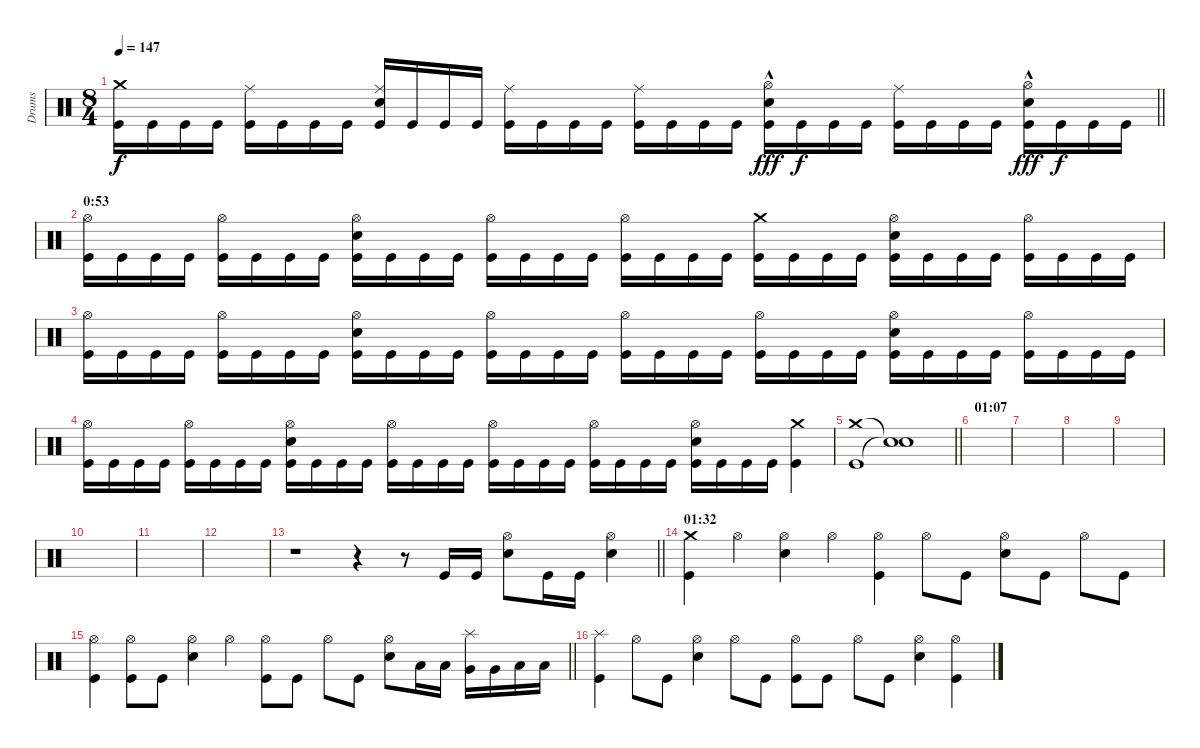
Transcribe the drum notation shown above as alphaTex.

\track ("Drums" "Drums") {instrument percussion}
\staff {score}
\articulation defaults
\ts (8 4)
\tempo 147
\clef neutral
\barLineRight lightlight
\ks c
("Crash medium (hit)" "Kick (hit)").16{dy f} "Kick (hit)".16 "Kick (hit)".16 "Kick (hit)".16 ("Ride (middle)" "Kick (hit)").16 "Kick (hit)".16 "Kick (hit)".16 "Kick (hit)".16 ("Ride (middle)" "Electric Snare (hit)" "Kick (hit)").16 "Kick (hit)".16 "Kick (hit)".16 "Kick (hit)".16 ("Ride (middle)" "Kick (hit)").16 "Kick (hit)".16 "Kick (hit)".16 "Kick (hit)".16 ("Ride (middle)" "Kick (hit)").16 "Kick (hit)".16 "Kick (hit)".16 "Kick (hit)".16 ("Hi-Hat (open)"{hac} "Electric Snare (hit)" "Kick (hit)").16{dy fff} "Kick (hit)".16{dy f} "Kick (hit)".16 "Kick (hit)".16 ("Ride (middle)" "Kick (hit)").16 "Kick (hit)".16 "Kick (hit)".16 "Kick (hit)".16 ("Hi-Hat (open)"{hac} "Electric Snare (hit)" "Kick (hit)").16{dy fff} "Kick (hit)".16{dy f} "Kick (hit)".16 "Kick (hit)".16 |
\section ("" "0:53")
("Hi-Hat (open)" "Kick (hit)").16 "Kick (hit)".16 "Kick (hit)".16 "Kick (hit)".16 ("Hi-Hat (open)" "Kick (hit)").16 "Kick (hit)".16 "Kick (hit)".16 "Kick (hit)".16 ("Hi-Hat (open)" "Electric Snare (hit)" "Kick (hit)").16 "Kick (hit)".16 "Kick (hit)".16 "Kick (hit)".16 ("Hi-Hat (open)" "Kick (hit)").16 "Kick (hit)".16 "Kick (hit)".16 "Kick (hit)".16 ("Hi-Hat (open)" "Kick (hit)").16 "Kick (hit)".16 "Kick (hit)".16 "Kick (hit)".16 ("Crash medium (hit)" "Kick (hit)").16 "Kick (hit)".16 "Kick (hit)".16 "Kick (hit)".16 ("Hi-Hat (open)" "Electric Snare (hit)" "Kick (hit)").16 "Kick (hit)".16 "Kick (hit)".16 "Kick (hit)".16 ("Hi-Hat (open)" "Kick (hit)").16 "Kick (hit)".16 "Kick (hit)".16 "Kick (hit)".16 |
("Hi-Hat (open)" "Kick (hit)").16 "Kick (hit)".16 "Kick (hit)".16 "Kick (hit)".16 ("Hi-Hat (open)" "Kick (hit)").16 "Kick (hit)".16 "Kick (hit)".16 "Kick (hit)".16 ("Hi-Hat (open)" "Electric Snare (hit)" "Kick (hit)").16 "Kick (hit)".16 "Kick (hit)".16 "Kick (hit)".16 ("Hi-Hat (open)" "Kick (hit)").16 "Kick (hit)".16 "Kick (hit)".16 "Kick (hit)".16 ("Hi-Hat (open)" "Kick (hit)").16 "Kick (hit)".16 "Kick (hit)".16 "Kick (hit)".16 ("Hi-Hat (open)" "Kick (hit)").16 "Kick (hit)".16 "Kick (hit)".16 "Kick (hit)".16 ("Hi-Hat (open)" "Electric Snare (hit)" "Kick (hit)").16 "Kick (hit)".16 "Kick (hit)".16 "Kick (hit)".16 ("Hi-Hat (open)" "Kick (hit)").16 "Kick (hit)".16 "Kick (hit)".16 "Kick (hit)".16 |
("Hi-Hat (open)" "Kick (hit)").16 "Kick (hit)".16 "Kick (hit)".16 "Kick (hit)".16 ("Hi-Hat (open)" "Kick (hit)").16 "Kick (hit)".16 "Kick (hit)".16 "Kick (hit)".16 ("Hi-Hat (open)" "Electric Snare (hit)" "Kick (hit)").16 "Kick (hit)".16 "Kick (hit)".16 "Kick (hit)".16 ("Hi-Hat (open)" "Kick (hit)").16 "Kick (hit)".16 "Kick (hit)".16 "Kick (hit)".16 ("Hi-Hat (open)" "Kick (hit)").16 "Kick (hit)".16 "Kick (hit)".16 "Kick (hit)".16 ("Hi-Hat (open)" "Kick (hit)").16 "Kick (hit)".16 "Kick (hit)".16 "Kick (hit)".16 ("Hi-Hat (open)" "Electric Snare (hit)" "Kick (hit)").16 "Kick (hit)".16 "Kick (hit)".16 "Kick (hit)".16 ("Crash medium (hit)" "Kick (hit)").4 |
\barLineRight lightlight
("Crash medium (hit)" "Kick (hit)").1 ("Snare (hit)"{t} "Snare (hit)"{t}).1 |
\section ("" "01:07")
|
|
|
|
|
|
|
\barLineRight lightlight
r.1 r.4 r.8 "Kick (hit)".16 "Kick (hit)".16 ("Hi-Hat (open)" "Electric Snare (hit)").8 "Kick (hit)".16 "Kick (hit)".16 ("Hi-Hat (open)" "Electric Snare (hit)").4 |
\section ("" "01:32")
("Crash medium (hit)" "Kick (hit)").4 "Hi-Hat (open)".4 ("Hi-Hat (open)" "Electric Snare (hit)").4 "Hi-Hat (open)".4 ("Hi-Hat (open)" "Kick (hit)").4 "Hi-Hat (open)".8 "Kick (hit)".8 ("Hi-Hat (open)" "Electric Snare (hit)").8 "Kick (hit)".8 "Hi-Hat (open)".8 "Kick (hit)".8 |
\barLineRight lightlight
("Hi-Hat (open)" "Kick (hit)").4 ("Hi-Hat (open)" "Kick (hit)").8 "Kick (hit)".8 ("Hi-Hat (open)" "Electric Snare (hit)").4 "Hi-Hat (open)".4 ("Hi-Hat (open)" "Kick (hit)").8 "Kick (hit)".8 "Hi-Hat (open)".8 "Kick (hit)".8 ("Hi-Hat (open)" "Electric Snare (hit)").8 "Low Tom (hit)".16 "Low Tom (hit)".16 ("Splash (hit)" "Very Low Tom (hit)").16 "Very Low Tom (hit)".16 "Low Floor Tom (hit)".16 "Low Floor Tom (hit)".16 |
("Splash (hit)" "Kick (hit)").4 "Hi-Hat (open)".8 "Kick (hit)".8 ("Hi-Hat (open)" "Electric Snare (hit)").4 "Hi-Hat (open)".8 "Kick (hit)".8 ("Hi-Hat (open)" "Kick (hit)").8 "Kick (hit)".8 "Hi-Hat (open)".8 "Kick (hit)".8 ("Hi-Hat (open)" "Electric Snare (hit)").4 ("Hi-Hat (open)" "Kick (hit)").4
